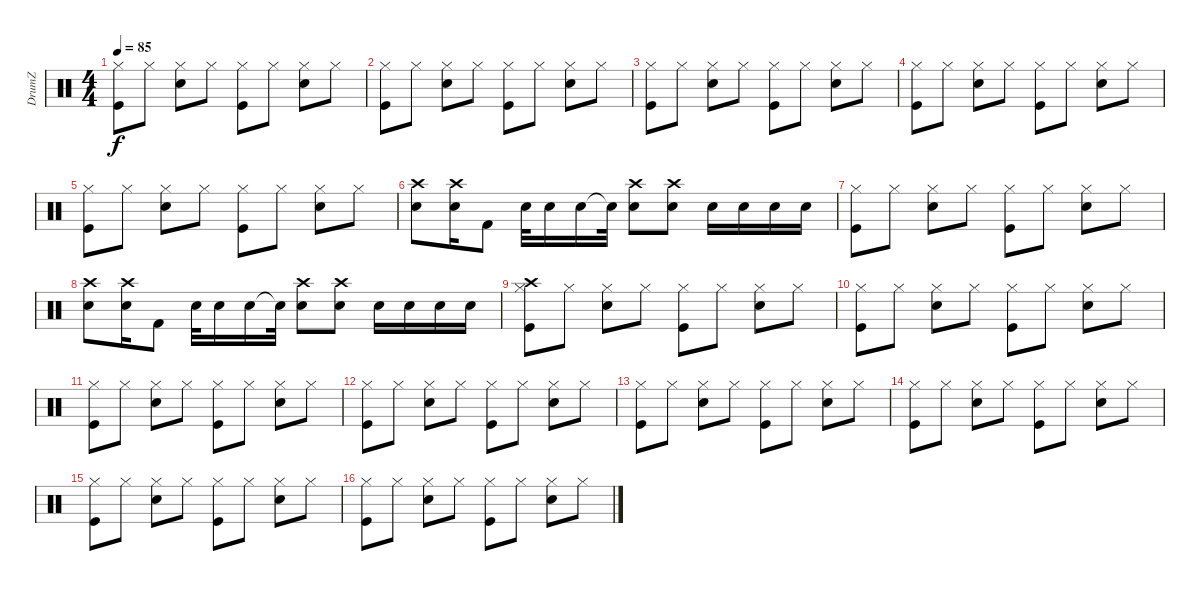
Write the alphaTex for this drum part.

\track ("DrumZ" "DrumZ") {instrument percussion}
\staff {score}
\articulation defaults
\ts (4 4)
\tempo 85
\clef neutral
\ks c
("Hi-Hat (closed)" "Kick (hit)").8{dy f} "Hi-Hat (closed)".8 ("Hi-Hat (closed)" "Electric Snare (hit)").8 "Hi-Hat (closed)".8 ("Hi-Hat (closed)" "Kick (hit)").8 "Hi-Hat (closed)".8 ("Hi-Hat (closed)" "Electric Snare (hit)").8 "Hi-Hat (closed)".8 |
("Hi-Hat (closed)" "Kick (hit)").8 "Hi-Hat (closed)".8 ("Hi-Hat (closed)" "Electric Snare (hit)").8 "Hi-Hat (closed)".8 ("Hi-Hat (closed)" "Kick (hit)").8 "Hi-Hat (closed)".8 ("Hi-Hat (closed)" "Electric Snare (hit)").8 "Hi-Hat (closed)".8 |
("Hi-Hat (closed)" "Kick (hit)").8 "Hi-Hat (closed)".8 ("Hi-Hat (closed)" "Electric Snare (hit)").8 "Hi-Hat (closed)".8 ("Hi-Hat (closed)" "Kick (hit)").8 "Hi-Hat (closed)".8 ("Hi-Hat (closed)" "Electric Snare (hit)").8 "Hi-Hat (closed)".8 |
("Hi-Hat (closed)" "Kick (hit)").8 "Hi-Hat (closed)".8 ("Hi-Hat (closed)" "Electric Snare (hit)").8 "Hi-Hat (closed)".8 ("Hi-Hat (closed)" "Kick (hit)").8 "Hi-Hat (closed)".8 ("Hi-Hat (closed)" "Electric Snare (hit)").8 "Hi-Hat (closed)".8 |
("Hi-Hat (closed)" "Kick (hit)").8 "Hi-Hat (closed)".8 ("Hi-Hat (closed)" "Electric Snare (hit)").8 "Hi-Hat (closed)".8 ("Hi-Hat (closed)" "Kick (hit)").8 "Hi-Hat (closed)".8 ("Hi-Hat (closed)" "Electric Snare (hit)").8 "Hi-Hat (closed)".8 |
("Electric Snare (hit)" "Crash high (hit)").8 ("Electric Snare (hit)" "Crash high (hit)").16 "Kick (hit) 2".8 "Electric Snare (hit)".32 "Electric Snare (hit)".16 "Electric Snare (hit)".16 "Snare (hit)"{t}.32 ("Electric Snare (hit)" "Crash high (hit)").8 ("Electric Snare (hit)" "Crash high (hit)").8 "Electric Snare (hit)".16 "Electric Snare (hit)".16 "Electric Snare (hit)".16 "Electric Snare (hit)".16 |
("Hi-Hat (closed)" "Kick (hit)").8 "Hi-Hat (closed)".8 ("Hi-Hat (closed)" "Electric Snare (hit)").8 "Hi-Hat (closed)".8 ("Hi-Hat (closed)" "Kick (hit)").8 "Hi-Hat (closed)".8 ("Hi-Hat (closed)" "Electric Snare (hit)").8 "Hi-Hat (closed)".8 |
("Electric Snare (hit)" "Crash high (hit)").8 ("Electric Snare (hit)" "Crash high (hit)").16 "Kick (hit) 2".8 "Electric Snare (hit)".32 "Electric Snare (hit)".16 "Electric Snare (hit)".16 "Snare (hit)"{t}.32 ("Electric Snare (hit)" "Crash high (hit)").8 ("Electric Snare (hit)" "Crash high (hit)").8 "Electric Snare (hit)".16 "Electric Snare (hit)".16 "Electric Snare (hit)".16 "Electric Snare (hit)".16 |
("Hi-Hat (closed)" "Crash high (hit)" "Kick (hit)").8 "Hi-Hat (closed)".8 ("Hi-Hat (closed)" "Electric Snare (hit)").8 "Hi-Hat (closed)".8 ("Hi-Hat (closed)" "Kick (hit)").8 "Hi-Hat (closed)".8 ("Hi-Hat (closed)" "Electric Snare (hit)").8 "Hi-Hat (closed)".8 |
("Hi-Hat (closed)" "Kick (hit)").8 "Hi-Hat (closed)".8 ("Hi-Hat (closed)" "Electric Snare (hit)").8 "Hi-Hat (closed)".8 ("Hi-Hat (closed)" "Kick (hit)").8 "Hi-Hat (closed)".8 ("Hi-Hat (closed)" "Electric Snare (hit)").8 "Hi-Hat (closed)".8 |
("Hi-Hat (closed)" "Kick (hit)").8 "Hi-Hat (closed)".8 ("Hi-Hat (closed)" "Electric Snare (hit)").8 "Hi-Hat (closed)".8 ("Hi-Hat (closed)" "Kick (hit)").8 "Hi-Hat (closed)".8 ("Hi-Hat (closed)" "Electric Snare (hit)").8 "Hi-Hat (closed)".8 |
("Hi-Hat (closed)" "Kick (hit)").8 "Hi-Hat (closed)".8 ("Hi-Hat (closed)" "Electric Snare (hit)").8 "Hi-Hat (closed)".8 ("Hi-Hat (closed)" "Kick (hit)").8 "Hi-Hat (closed)".8 ("Hi-Hat (closed)" "Electric Snare (hit)").8 "Hi-Hat (closed)".8 |
("Hi-Hat (closed)" "Kick (hit)").8 "Hi-Hat (closed)".8 ("Hi-Hat (closed)" "Electric Snare (hit)").8 "Hi-Hat (closed)".8 ("Hi-Hat (closed)" "Kick (hit)").8 "Hi-Hat (closed)".8 ("Hi-Hat (closed)" "Electric Snare (hit)").8 "Hi-Hat (closed)".8 |
("Hi-Hat (closed)" "Kick (hit)").8 "Hi-Hat (closed)".8 ("Hi-Hat (closed)" "Electric Snare (hit)").8 "Hi-Hat (closed)".8 ("Hi-Hat (closed)" "Kick (hit)").8 "Hi-Hat (closed)".8 ("Hi-Hat (closed)" "Electric Snare (hit)").8 "Hi-Hat (closed)".8 |
("Hi-Hat (closed)" "Kick (hit)").8 "Hi-Hat (closed)".8 ("Hi-Hat (closed)" "Electric Snare (hit)").8 "Hi-Hat (closed)".8 ("Hi-Hat (closed)" "Kick (hit)").8 "Hi-Hat (closed)".8 ("Hi-Hat (closed)" "Electric Snare (hit)").8 "Hi-Hat (closed)".8 |
("Hi-Hat (closed)" "Kick (hit)").8 "Hi-Hat (closed)".8 ("Hi-Hat (closed)" "Electric Snare (hit)").8 "Hi-Hat (closed)".8 ("Hi-Hat (closed)" "Kick (hit)").8 "Hi-Hat (closed)".8 ("Hi-Hat (closed)" "Electric Snare (hit)").8 "Hi-Hat (closed)".8
